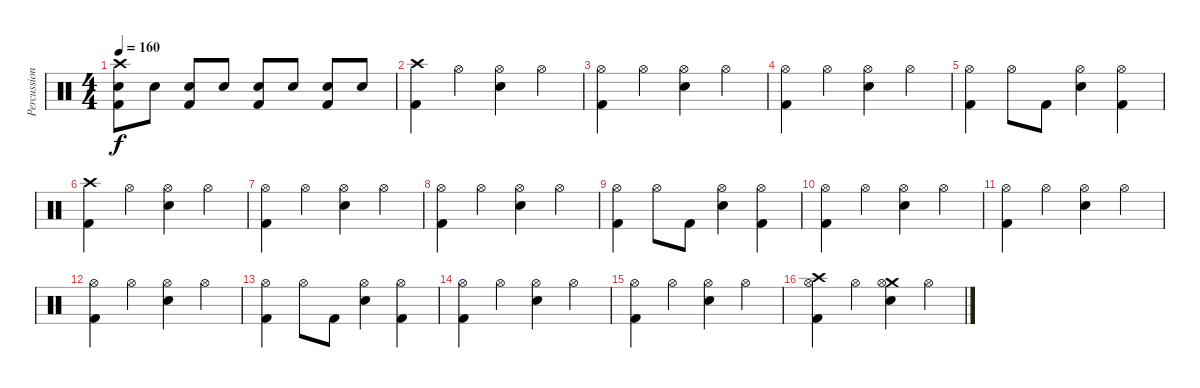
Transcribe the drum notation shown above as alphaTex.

\track ("Percussion" "Percussion") {instrument percussion}
\staff {score}
\articulation defaults
\ts (4 4)
\tempo 160
\clef neutral
\ks c
("Crash high (hit)" "Electric Snare (hit)" "Kick (hit) 2").8{dy f} "Electric Snare (hit)".8 ("Electric Snare (hit)" "Kick (hit) 2").8 "Electric Snare (hit)".8 ("Electric Snare (hit)" "Kick (hit) 2").8 "Electric Snare (hit)".8 ("Electric Snare (hit)" "Kick (hit) 2").8 "Electric Snare (hit)".8 |
("Crash high (hit)" "Kick (hit) 2").4 "Hi-Hat (open)".4 ("Hi-Hat (open)" "Electric Snare (hit)").4 "Hi-Hat (open)".4 |
("Hi-Hat (open)" "Kick (hit) 2").4 "Hi-Hat (open)".4 ("Hi-Hat (open)" "Electric Snare (hit)").4 "Hi-Hat (open)".4 |
("Hi-Hat (open)" "Kick (hit) 2").4 "Hi-Hat (open)".4 ("Hi-Hat (open)" "Electric Snare (hit)").4 "Hi-Hat (open)".4 |
("Hi-Hat (open)" "Kick (hit) 2").4 "Hi-Hat (open)".8 "Kick (hit) 2".8 ("Hi-Hat (open)" "Electric Snare (hit)").4 ("Hi-Hat (open)" "Kick (hit) 2").4 |
("Crash high (hit)" "Kick (hit) 2").4 "Hi-Hat (open)".4 ("Hi-Hat (open)" "Electric Snare (hit)").4 "Hi-Hat (open)".4 |
("Hi-Hat (open)" "Kick (hit) 2").4 "Hi-Hat (open)".4 ("Hi-Hat (open)" "Electric Snare (hit)").4 "Hi-Hat (open)".4 |
("Hi-Hat (open)" "Kick (hit) 2").4 "Hi-Hat (open)".4 ("Hi-Hat (open)" "Electric Snare (hit)").4 "Hi-Hat (open)".4 |
("Hi-Hat (open)" "Kick (hit) 2").4 "Hi-Hat (open)".8 "Kick (hit) 2".8 ("Hi-Hat (open)" "Electric Snare (hit)").4 ("Hi-Hat (open)" "Kick (hit) 2").4 |
("Hi-Hat (open)" "Kick (hit) 2").4 "Hi-Hat (open)".4 ("Hi-Hat (open)" "Electric Snare (hit)").4 "Hi-Hat (open)".4 |
("Hi-Hat (open)" "Kick (hit) 2").4 "Hi-Hat (open)".4 ("Hi-Hat (open)" "Electric Snare (hit)").4 "Hi-Hat (open)".4 |
("Hi-Hat (open)" "Kick (hit) 2").4 "Hi-Hat (open)".4 ("Hi-Hat (open)" "Electric Snare (hit)").4 "Hi-Hat (open)".4 |
("Hi-Hat (open)" "Kick (hit) 2").4 "Hi-Hat (open)".8 "Kick (hit) 2".8 ("Hi-Hat (open)" "Electric Snare (hit)").4 ("Hi-Hat (open)" "Kick (hit) 2").4 |
("Hi-Hat (open)" "Kick (hit) 2").4 "Hi-Hat (open)".4 ("Hi-Hat (open)" "Electric Snare (hit)").4 "Hi-Hat (open)".4 |
("Hi-Hat (open)" "Kick (hit) 2").4 "Hi-Hat (open)".4 ("Hi-Hat (open)" "Electric Snare (hit)").4 "Hi-Hat (open)".4 |
("Crash high (hit)" "Hi-Hat (open)" "Kick (hit) 2").4 "Hi-Hat (open)".4 ("Crash medium (hit)" "Hi-Hat (open)" "Electric Snare (hit)").4 "Hi-Hat (open)".4
